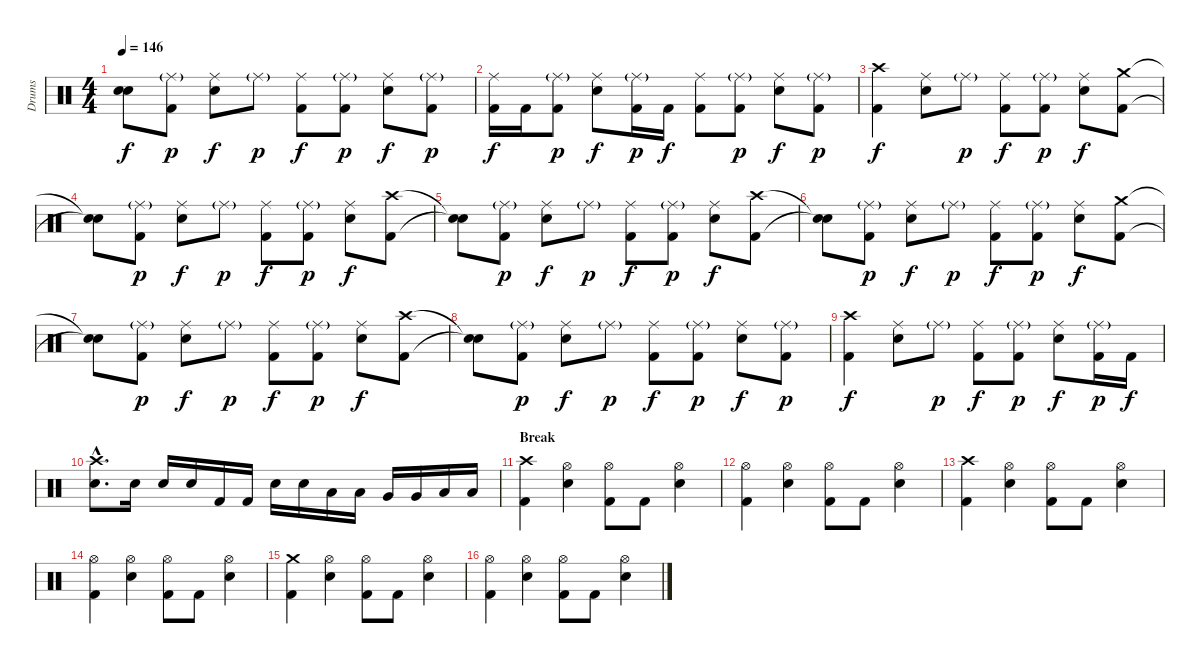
\track ("Drums" "Drums") {instrument percussion}
\staff {score}
\articulation defaults
\ts (4 4)
\tempo 146
\clef neutral
\ks c
("Snare (hit)"{t} "Snare (hit)"{t}).8{dy f} ("Ride (middle)"{g} "Kick (hit) 2").8{dy p} ("Ride (middle)" "Snare (hit) 2").8{dy f} "Ride (middle)"{g}.8{dy p} ("Ride (middle)" "Kick (hit) 2").8{dy f} ("Ride (middle)"{g} "Kick (hit) 2").8{dy p} ("Ride (middle)" "Snare (hit) 2").8{dy f} ("Ride (middle)"{g} "Kick (hit) 2").8{dy p} |
("Ride (middle)" "Kick (hit) 2").16{dy f} "Kick (hit) 2".16 ("Ride (middle)"{g} "Kick (hit) 2").8{dy p} ("Ride (middle)" "Snare (hit) 2").8{dy f} ("Ride (middle)"{g} "Kick (hit) 2").16{dy p} "Kick (hit) 2".16{dy f} ("Ride (middle)" "Kick (hit) 2").8 ("Ride (middle)"{g} "Kick (hit) 2").8{dy p} ("Ride (middle)" "Snare (hit) 2").8{dy f} ("Ride (middle)"{g} "Kick (hit) 2").8{dy p} |
("Crash high (hit)" "Kick (hit) 2").4{dy f} ("Ride (middle)" "Snare (hit) 2").8 "Ride (middle)"{g}.8{dy p} ("Ride (middle)" "Kick (hit) 2").8{dy f} ("Ride (middle)"{g} "Kick (hit) 2").8{dy p} ("Ride (middle)" "Snare (hit) 2").8{dy f} ("Crash medium (hit)" "Kick (hit) 2").8 |
("Snare (hit)"{t} "Snare (hit)"{t}).8 ("Ride (middle)"{g} "Kick (hit) 2").8{dy p} ("Ride (middle)" "Snare (hit) 2").8{dy f} "Ride (middle)"{g}.8{dy p} ("Ride (middle)" "Kick (hit) 2").8{dy f} ("Ride (middle)"{g} "Kick (hit) 2").8{dy p} ("Ride (middle)" "Snare (hit) 2").8{dy f} ("Crash high (hit)" "Kick (hit) 2").8 |
("Snare (hit)"{t} "Snare (hit)"{t}).8 ("Ride (middle)"{g} "Kick (hit) 2").8{dy p} ("Ride (middle)" "Snare (hit) 2").8{dy f} "Ride (middle)"{g}.8{dy p} ("Ride (middle)" "Kick (hit) 2").8{dy f} ("Ride (middle)"{g} "Kick (hit) 2").8{dy p} ("Ride (middle)" "Snare (hit) 2").8{dy f} ("Crash high (hit)" "Kick (hit) 2").8 |
("Snare (hit)"{t} "Snare (hit)"{t}).8 ("Ride (middle)"{g} "Kick (hit) 2").8{dy p} ("Ride (middle)" "Snare (hit) 2").8{dy f} "Ride (middle)"{g}.8{dy p} ("Ride (middle)" "Kick (hit) 2").8{dy f} ("Ride (middle)"{g} "Kick (hit) 2").8{dy p} ("Ride (middle)" "Snare (hit) 2").8{dy f} ("Crash medium (hit)" "Kick (hit) 2").8 |
("Snare (hit)"{t} "Snare (hit)"{t}).8 ("Ride (middle)"{g} "Kick (hit) 2").8{dy p} ("Ride (middle)" "Snare (hit) 2").8{dy f} "Ride (middle)"{g}.8{dy p} ("Ride (middle)" "Kick (hit) 2").8{dy f} ("Ride (middle)"{g} "Kick (hit) 2").8{dy p} ("Ride (middle)" "Snare (hit) 2").8{dy f} ("Crash high (hit)" "Kick (hit) 2").8 |
("Snare (hit)"{t} "Snare (hit)"{t}).8 ("Ride (middle)"{g} "Kick (hit) 2").8{dy p} ("Ride (middle)" "Snare (hit) 2").8{dy f} "Ride (middle)"{g}.8{dy p} ("Ride (middle)" "Kick (hit) 2").8{dy f} ("Ride (middle)"{g} "Kick (hit) 2").8{dy p} ("Ride (middle)" "Snare (hit) 2").8{dy f} ("Ride (middle)"{g} "Kick (hit) 2").8{dy p} |
("Crash high (hit)" "Kick (hit) 2").4{dy f} ("Ride (middle)" "Snare (hit) 2").8 "Ride (middle)"{g}.8{dy p} ("Ride (middle)" "Kick (hit) 2").8{dy f} ("Ride (middle)"{g} "Kick (hit) 2").8{dy p} ("Ride (middle)" "Snare (hit) 2").8{dy f} ("Ride (middle)"{g} "Kick (hit) 2").16{dy p} "Kick (hit) 2".16{dy f} |
("Crash high (hit)"{hac} "Snare (hit) 2"{hac}).8{d} "Snare (hit) 2".16 "Snare (hit) 2".16 "Snare (hit) 2".16 "Kick (hit) 2".16 "Kick (hit) 2".16 "Snare (hit) 2".16 "Snare (hit) 2".16 "Low Tom (hit)".16 "Low Tom (hit)".16 "Very Low Tom (hit)".16 "Very Low Tom (hit)".16 "Low Floor Tom (hit)".16 "Low Floor Tom (hit)".16 |
\section ("" "Break")
("Crash high (hit)" "Kick (hit) 2").4 ("Hi-Hat (open)" "Snare (hit) 2").4 ("Hi-Hat (open)" "Kick (hit) 2").8 "Kick (hit) 2".8 ("Hi-Hat (open)" "Snare (hit) 2").4 |
("Hi-Hat (open)" "Kick (hit) 2").4 ("Hi-Hat (open)" "Snare (hit) 2").4 ("Hi-Hat (open)" "Kick (hit) 2").8 "Kick (hit) 2".8 ("Hi-Hat (open)" "Snare (hit) 2").4 |
("Crash high (hit)" "Kick (hit) 2").4 ("Hi-Hat (open)" "Snare (hit) 2").4 ("Hi-Hat (open)" "Kick (hit) 2").8 "Kick (hit) 2".8 ("Hi-Hat (open)" "Snare (hit) 2").4 |
("Hi-Hat (open)" "Kick (hit) 2").4 ("Hi-Hat (open)" "Snare (hit) 2").4 ("Hi-Hat (open)" "Kick (hit) 2").8 "Kick (hit) 2".8 ("Hi-Hat (open)" "Snare (hit) 2").4 |
("Crash medium (hit)" "Kick (hit) 2").4 ("Hi-Hat (open)" "Snare (hit) 2").4 ("Hi-Hat (open)" "Kick (hit) 2").8 "Kick (hit) 2".8 ("Hi-Hat (open)" "Snare (hit) 2").4 |
("Hi-Hat (open)" "Kick (hit) 2").4 ("Hi-Hat (open)" "Snare (hit) 2").4 ("Hi-Hat (open)" "Kick (hit) 2").8 "Kick (hit) 2".8 ("Hi-Hat (open)" "Snare (hit) 2").4
